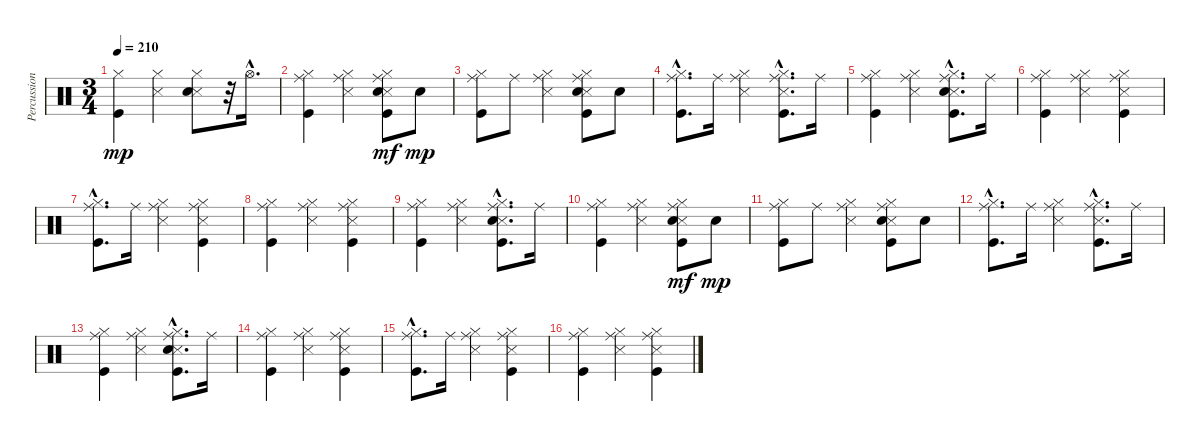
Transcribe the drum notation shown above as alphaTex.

\track ("Percussion" "Percussion") {instrument percussion}
\staff {score}
\articulation defaults
\ts (3 4)
\tempo 210
\clef neutral
\ks c
("Kick (hit)" "Hi-Hat (closed)").4{dy mp} ("Snare (side stick) 3" "Hi-Hat (closed)").4 ("Snare (side stick) 3" "Snare (hit) 2" "Hi-Hat (closed)").8 r.32 "Hi-Hat (open)"{hac}.16{d} |
("Kick (hit)" "Hi-Hat (closed)" "Ride (middle)").4 ("Snare (side stick) 3" "Hi-Hat (closed)" "Ride (middle)").4 ("Kick (hit)" "Snare (side stick) 3" "Snare (hit) 2" "Hi-Hat (closed)" "Ride (middle)").8{dy mf} "Snare (hit) 2".8{dy mp} |
("Kick (hit)" "Hi-Hat (closed)" "Ride (middle)").8 "Ride (middle)".8 ("Snare (side stick) 3" "Hi-Hat (closed)" "Ride (middle)").4 ("Kick (hit)" "Snare (side stick) 3" "Snare (hit) 2" "Hi-Hat (closed)" "Ride (middle)").8 "Snare (hit) 2".8 |
("Kick (hit)"{hac} "Hi-Hat (closed)"{hac} "Ride (middle)"{hac}).8{d} "Ride (middle)".16 ("Snare (side stick) 3" "Hi-Hat (closed)" "Ride (middle)").4 ("Kick (hit)"{hac} "Snare (side stick) 3"{hac} "Hi-Hat (closed)"{hac} "Ride (middle)"{hac}).8{d} "Ride (middle)".16 |
("Kick (hit)" "Hi-Hat (closed)" "Ride (middle)").4 ("Snare (side stick) 3" "Hi-Hat (closed)" "Ride (middle)").4 ("Kick (hit)"{hac} "Snare (side stick) 3"{hac} "Snare (hit) 2"{hac} "Hi-Hat (closed)"{hac} "Ride (middle)"{hac}).8{d} "Ride (middle)".16 |
("Kick (hit)" "Hi-Hat (closed)" "Ride (middle)").4 ("Snare (side stick) 3" "Hi-Hat (closed)" "Ride (middle)").4 ("Kick (hit)" "Snare (side stick) 3" "Hi-Hat (closed)" "Ride (middle)").4 |
("Kick (hit)"{hac} "Hi-Hat (closed)"{hac} "Ride (middle)"{hac}).8{d} "Ride (middle)".16 ("Snare (side stick) 3" "Hi-Hat (closed)" "Ride (middle)").4 ("Kick (hit)" "Snare (side stick) 3" "Hi-Hat (closed)" "Ride (middle)").4 |
("Kick (hit)" "Hi-Hat (closed)" "Ride (middle)").4 ("Snare (side stick) 3" "Hi-Hat (closed)" "Ride (middle)").4 ("Kick (hit)" "Snare (side stick) 3" "Hi-Hat (closed)" "Ride (middle)").4 |
("Kick (hit)" "Hi-Hat (closed)" "Ride (middle)").4 ("Snare (side stick) 3" "Hi-Hat (closed)" "Ride (middle)").4 ("Kick (hit)"{hac} "Snare (side stick) 3"{hac} "Snare (hit) 2"{hac} "Hi-Hat (closed)"{hac} "Ride (middle)"{hac}).8{d} "Ride (middle)".16 |
("Kick (hit)" "Hi-Hat (closed)" "Ride (middle)").4 ("Snare (side stick) 3" "Hi-Hat (closed)" "Ride (middle)").4 ("Kick (hit)" "Snare (side stick) 3" "Snare (hit) 2" "Hi-Hat (closed)" "Ride (middle)").8{dy mf} "Snare (hit) 2".8{dy mp} |
("Kick (hit)" "Hi-Hat (closed)" "Ride (middle)").8 "Ride (middle)".8 ("Snare (side stick) 3" "Hi-Hat (closed)" "Ride (middle)").4 ("Kick (hit)" "Snare (side stick) 3" "Snare (hit) 2" "Hi-Hat (closed)" "Ride (middle)").8 "Snare (hit) 2".8 |
("Kick (hit)"{hac} "Hi-Hat (closed)"{hac} "Ride (middle)"{hac}).8{d} "Ride (middle)".16 ("Snare (side stick) 3" "Hi-Hat (closed)" "Ride (middle)").4 ("Kick (hit)"{hac} "Snare (side stick) 3"{hac} "Hi-Hat (closed)"{hac} "Ride (middle)"{hac}).8{d} "Ride (middle)".16 |
("Kick (hit)" "Hi-Hat (closed)" "Ride (middle)").4 ("Snare (side stick) 3" "Hi-Hat (closed)" "Ride (middle)").4 ("Kick (hit)"{hac} "Snare (side stick) 3"{hac} "Snare (hit) 2"{hac} "Hi-Hat (closed)"{hac} "Ride (middle)"{hac}).8{d} "Ride (middle)".16 |
("Kick (hit)" "Hi-Hat (closed)" "Ride (middle)").4 ("Snare (side stick) 3" "Hi-Hat (closed)" "Ride (middle)").4 ("Kick (hit)" "Snare (side stick) 3" "Hi-Hat (closed)" "Ride (middle)").4 |
("Kick (hit)"{hac} "Hi-Hat (closed)"{hac} "Ride (middle)"{hac}).8{d} "Ride (middle)".16 ("Snare (side stick) 3" "Hi-Hat (closed)" "Ride (middle)").4 ("Kick (hit)" "Snare (side stick) 3" "Hi-Hat (closed)" "Ride (middle)").4 |
("Kick (hit)" "Hi-Hat (closed)" "Ride (middle)").4 ("Snare (side stick) 3" "Hi-Hat (closed)" "Ride (middle)").4 ("Kick (hit)" "Snare (side stick) 3" "Hi-Hat (closed)" "Ride (middle)").4
